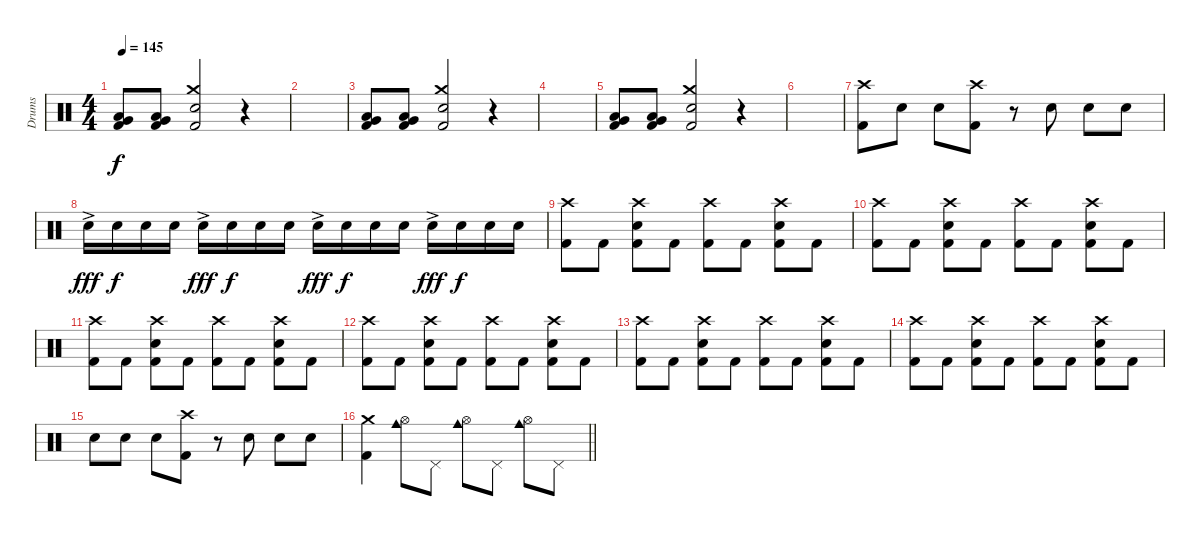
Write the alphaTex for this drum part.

\track ("Drums" "Drums") {instrument percussion}
\staff {score}
\articulation defaults
\ts (4 4)
\tempo 145
\clef neutral
\ks c
("Low Tom (hit)" "Very Low Tom (hit)" "Kick (hit) 2").8{dy f} ("Low Tom (hit)" "Very Low Tom (hit)" "Kick (hit) 2").8 ("Crash medium (hit)" "Snare (hit) 2" "Kick (hit) 2").2 r.4 |
|
("Low Tom (hit)" "Very Low Tom (hit)" "Kick (hit) 2").8 ("Low Tom (hit)" "Very Low Tom (hit)" "Kick (hit) 2").8 ("Crash medium (hit)" "Snare (hit) 2" "Kick (hit) 2").2 r.4 |
|
("Low Tom (hit)" "Very Low Tom (hit)" "Kick (hit) 2").8 ("Low Tom (hit)" "Very Low Tom (hit)" "Kick (hit) 2").8 ("Crash medium (hit)" "Snare (hit) 2" "Kick (hit) 2").2 r.4 |
|
("Crash high (hit)" "Kick (hit) 2").8 "Snare (hit) 2".8 "Snare (hit) 2".8 ("Crash high (hit)" "Kick (hit) 2").8 r.8 "Snare (hit) 2".8 "Snare (hit) 2".8 "Snare (hit) 2".8 |
"Snare (hit) 2"{ac}.16{dy fff} "Snare (hit) 2".16{dy f} "Snare (hit) 2".16 "Snare (hit) 2".16 "Snare (hit) 2"{ac}.16{dy fff} "Snare (hit) 2".16{dy f} "Snare (hit) 2".16 "Snare (hit) 2".16 "Snare (hit) 2"{ac}.16{dy fff} "Snare (hit) 2".16{dy f} "Snare (hit) 2".16 "Snare (hit) 2".16 "Snare (hit) 2"{ac}.16{dy fff} "Snare (hit) 2".16{dy f} "Snare (hit) 2".16 "Snare (hit) 2".16 |
("Crash high (hit)" "Kick (hit) 2").8 "Kick (hit) 2".8 ("Crash high (hit)" "Snare (hit) 2" "Kick (hit) 2").8 "Kick (hit) 2".8 ("Crash high (hit)" "Kick (hit) 2").8 "Kick (hit) 2".8 ("Crash high (hit)" "Snare (hit) 2" "Kick (hit) 2").8 "Kick (hit) 2".8 |
("Crash high (hit)" "Kick (hit) 2").8 "Kick (hit) 2".8 ("Crash high (hit)" "Snare (hit) 2" "Kick (hit) 2").8 "Kick (hit) 2".8 ("Crash high (hit)" "Kick (hit) 2").8 "Kick (hit) 2".8 ("Crash high (hit)" "Snare (hit) 2" "Kick (hit) 2").8 "Kick (hit) 2".8 |
("Crash high (hit)" "Kick (hit) 2").8 "Kick (hit) 2".8 ("Crash high (hit)" "Snare (hit) 2" "Kick (hit) 2").8 "Kick (hit) 2".8 ("Crash high (hit)" "Kick (hit) 2").8 "Kick (hit) 2".8 ("Crash high (hit)" "Snare (hit) 2" "Kick (hit) 2").8 "Kick (hit) 2".8 |
("Crash high (hit)" "Kick (hit) 2").8 "Kick (hit) 2".8 ("Crash high (hit)" "Snare (hit) 2" "Kick (hit) 2").8 "Kick (hit) 2".8 ("Crash high (hit)" "Kick (hit) 2").8 "Kick (hit) 2".8 ("Crash high (hit)" "Snare (hit) 2" "Kick (hit) 2").8 "Kick (hit) 2".8 |
("Crash high (hit)" "Kick (hit) 2").8 "Kick (hit) 2".8 ("Crash high (hit)" "Snare (hit) 2" "Kick (hit) 2").8 "Kick (hit) 2".8 ("Crash high (hit)" "Kick (hit) 2").8 "Kick (hit) 2".8 ("Crash high (hit)" "Snare (hit) 2" "Kick (hit) 2").8 "Kick (hit) 2".8 |
("Crash high (hit)" "Kick (hit) 2").8 "Kick (hit) 2".8 ("Crash high (hit)" "Snare (hit) 2" "Kick (hit) 2").8 "Kick (hit) 2".8 ("Crash high (hit)" "Kick (hit) 2").8 "Kick (hit) 2".8 ("Crash high (hit)" "Snare (hit) 2" "Kick (hit) 2").8 "Kick (hit) 2".8 |
"Snare (hit) 2".8 "Snare (hit) 2".8 "Snare (hit) 2".8 ("Crash high (hit)" "Kick (hit) 2").8 r.8 "Snare (hit) 2".8 "Snare (hit) 2".8 "Snare (hit) 2".8 |
\barLineRight lightlight
("Crash medium (hit)" "Kick (hit) 2").4 ("Hi-Hat (open)" "Cowbell medium (hit)").8 "Pedal Hi-Hat (hit)".8 ("Hi-Hat (open)" "Cowbell medium (hit)").8 "Pedal Hi-Hat (hit)".8 ("Hi-Hat (open)" "Cowbell medium (hit)").8 "Pedal Hi-Hat (hit)".8
